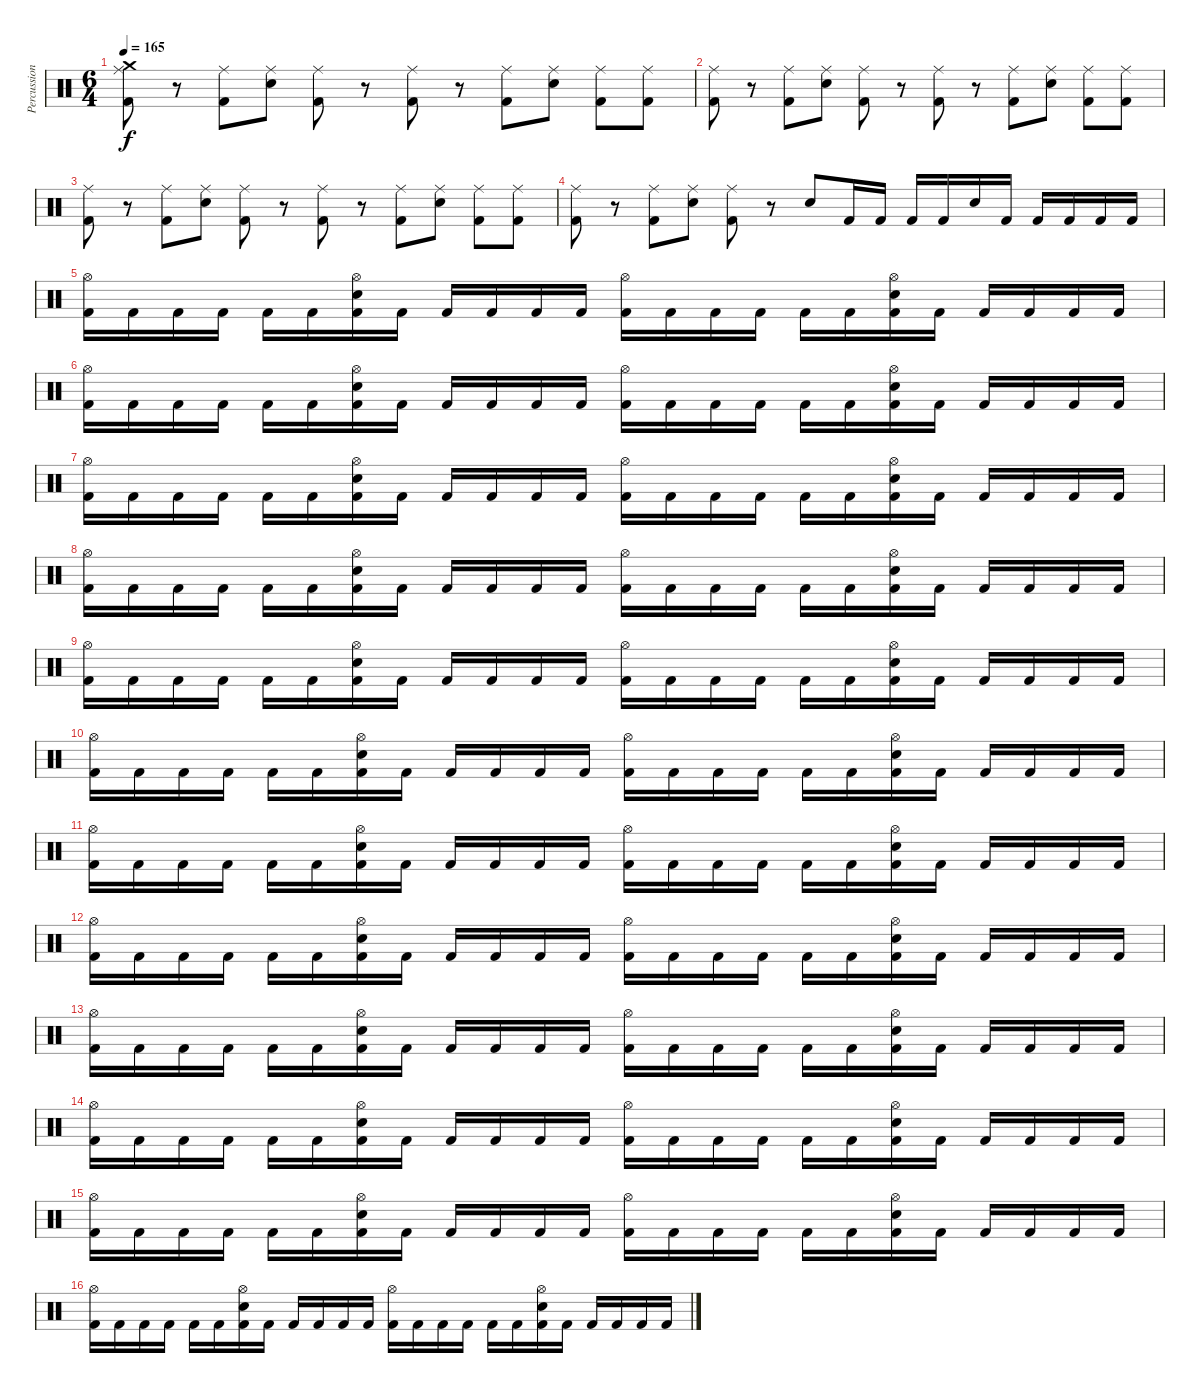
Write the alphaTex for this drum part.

\track ("Percussion" "Percussion") {instrument percussion}
\staff {score}
\articulation defaults
\ts (6 4)
\tempo 165
\clef neutral
\ks c
("Crash medium (hit)" "Ride (middle)" "Kick (hit) 2").8{dy f} r.8 ("Ride (middle)" "Kick (hit) 2").8 ("Ride (middle)" "Electric Snare (hit)").8 ("Ride (middle)" "Kick (hit) 2").8 r.8 ("Ride (middle)" "Kick (hit) 2").8 r.8 ("Ride (middle)" "Kick (hit) 2").8 ("Ride (middle)" "Electric Snare (hit)").8 ("Ride (middle)" "Kick (hit) 2").8 ("Ride (middle)" "Kick (hit) 2").8 |
("Ride (middle)" "Kick (hit) 2").8 r.8 ("Ride (middle)" "Kick (hit) 2").8 ("Ride (middle)" "Electric Snare (hit)").8 ("Ride (middle)" "Kick (hit) 2").8 r.8 ("Ride (middle)" "Kick (hit) 2").8 r.8 ("Ride (middle)" "Kick (hit) 2").8 ("Ride (middle)" "Electric Snare (hit)").8 ("Ride (middle)" "Kick (hit) 2").8 ("Ride (middle)" "Kick (hit) 2").8 |
("Ride (middle)" "Kick (hit) 2").8 r.8 ("Ride (middle)" "Kick (hit) 2").8 ("Ride (middle)" "Electric Snare (hit)").8 ("Ride (middle)" "Kick (hit) 2").8 r.8 ("Ride (middle)" "Kick (hit) 2").8 r.8 ("Ride (middle)" "Kick (hit) 2").8 ("Ride (middle)" "Electric Snare (hit)").8 ("Ride (middle)" "Kick (hit) 2").8 ("Ride (middle)" "Kick (hit) 2").8 |
("Ride (middle)" "Kick (hit) 2").8 r.8 ("Ride (middle)" "Kick (hit) 2").8 ("Ride (middle)" "Electric Snare (hit)").8 ("Ride (middle)" "Kick (hit) 2").8 r.8 "Electric Snare (hit)".8 "Kick (hit) 2".16 "Kick (hit) 2".16 "Kick (hit) 2".16 "Kick (hit) 2".16 "Electric Snare (hit)".16 "Kick (hit) 2".16 "Kick (hit) 2".16 "Kick (hit) 2".16 "Kick (hit) 2".16 "Kick (hit) 2".16 |
("Hi-Hat (open)" "Kick (hit) 2").16 "Kick (hit) 2".16 "Kick (hit) 2".16 "Kick (hit) 2".16 "Kick (hit) 2".16 "Kick (hit) 2".16 ("Hi-Hat (open)" "Electric Snare (hit)" "Kick (hit) 2").16 "Kick (hit) 2".16 "Kick (hit) 2".16 "Kick (hit) 2".16 "Kick (hit) 2".16 "Kick (hit) 2".16 ("Hi-Hat (open)" "Kick (hit) 2").16 "Kick (hit) 2".16 "Kick (hit) 2".16 "Kick (hit) 2".16 "Kick (hit) 2".16 "Kick (hit) 2".16 ("Hi-Hat (open)" "Electric Snare (hit)" "Kick (hit) 2").16 "Kick (hit) 2".16 "Kick (hit) 2".16 "Kick (hit) 2".16 "Kick (hit) 2".16 "Kick (hit) 2".16 |
("Hi-Hat (open)" "Kick (hit) 2").16 "Kick (hit) 2".16 "Kick (hit) 2".16 "Kick (hit) 2".16 "Kick (hit) 2".16 "Kick (hit) 2".16 ("Hi-Hat (open)" "Electric Snare (hit)" "Kick (hit) 2").16 "Kick (hit) 2".16 "Kick (hit) 2".16 "Kick (hit) 2".16 "Kick (hit) 2".16 "Kick (hit) 2".16 ("Hi-Hat (open)" "Kick (hit) 2").16 "Kick (hit) 2".16 "Kick (hit) 2".16 "Kick (hit) 2".16 "Kick (hit) 2".16 "Kick (hit) 2".16 ("Hi-Hat (open)" "Electric Snare (hit)" "Kick (hit) 2").16 "Kick (hit) 2".16 "Kick (hit) 2".16 "Kick (hit) 2".16 "Kick (hit) 2".16 "Kick (hit) 2".16 |
("Hi-Hat (open)" "Kick (hit) 2").16 "Kick (hit) 2".16 "Kick (hit) 2".16 "Kick (hit) 2".16 "Kick (hit) 2".16 "Kick (hit) 2".16 ("Hi-Hat (open)" "Electric Snare (hit)" "Kick (hit) 2").16 "Kick (hit) 2".16 "Kick (hit) 2".16 "Kick (hit) 2".16 "Kick (hit) 2".16 "Kick (hit) 2".16 ("Hi-Hat (open)" "Kick (hit) 2").16 "Kick (hit) 2".16 "Kick (hit) 2".16 "Kick (hit) 2".16 "Kick (hit) 2".16 "Kick (hit) 2".16 ("Hi-Hat (open)" "Electric Snare (hit)" "Kick (hit) 2").16 "Kick (hit) 2".16 "Kick (hit) 2".16 "Kick (hit) 2".16 "Kick (hit) 2".16 "Kick (hit) 2".16 |
("Hi-Hat (open)" "Kick (hit) 2").16 "Kick (hit) 2".16 "Kick (hit) 2".16 "Kick (hit) 2".16 "Kick (hit) 2".16 "Kick (hit) 2".16 ("Hi-Hat (open)" "Electric Snare (hit)" "Kick (hit) 2").16 "Kick (hit) 2".16 "Kick (hit) 2".16 "Kick (hit) 2".16 "Kick (hit) 2".16 "Kick (hit) 2".16 ("Hi-Hat (open)" "Kick (hit) 2").16 "Kick (hit) 2".16 "Kick (hit) 2".16 "Kick (hit) 2".16 "Kick (hit) 2".16 "Kick (hit) 2".16 ("Hi-Hat (open)" "Electric Snare (hit)" "Kick (hit) 2").16 "Kick (hit) 2".16 "Kick (hit) 2".16 "Kick (hit) 2".16 "Kick (hit) 2".16 "Kick (hit) 2".16 |
("Hi-Hat (open)" "Kick (hit) 2").16 "Kick (hit) 2".16 "Kick (hit) 2".16 "Kick (hit) 2".16 "Kick (hit) 2".16 "Kick (hit) 2".16 ("Hi-Hat (open)" "Electric Snare (hit)" "Kick (hit) 2").16 "Kick (hit) 2".16 "Kick (hit) 2".16 "Kick (hit) 2".16 "Kick (hit) 2".16 "Kick (hit) 2".16 ("Hi-Hat (open)" "Kick (hit) 2").16 "Kick (hit) 2".16 "Kick (hit) 2".16 "Kick (hit) 2".16 "Kick (hit) 2".16 "Kick (hit) 2".16 ("Hi-Hat (open)" "Electric Snare (hit)" "Kick (hit) 2").16 "Kick (hit) 2".16 "Kick (hit) 2".16 "Kick (hit) 2".16 "Kick (hit) 2".16 "Kick (hit) 2".16 |
("Hi-Hat (open)" "Kick (hit) 2").16 "Kick (hit) 2".16 "Kick (hit) 2".16 "Kick (hit) 2".16 "Kick (hit) 2".16 "Kick (hit) 2".16 ("Hi-Hat (open)" "Electric Snare (hit)" "Kick (hit) 2").16 "Kick (hit) 2".16 "Kick (hit) 2".16 "Kick (hit) 2".16 "Kick (hit) 2".16 "Kick (hit) 2".16 ("Hi-Hat (open)" "Kick (hit) 2").16 "Kick (hit) 2".16 "Kick (hit) 2".16 "Kick (hit) 2".16 "Kick (hit) 2".16 "Kick (hit) 2".16 ("Hi-Hat (open)" "Electric Snare (hit)" "Kick (hit) 2").16 "Kick (hit) 2".16 "Kick (hit) 2".16 "Kick (hit) 2".16 "Kick (hit) 2".16 "Kick (hit) 2".16 |
("Hi-Hat (open)" "Kick (hit) 2").16 "Kick (hit) 2".16 "Kick (hit) 2".16 "Kick (hit) 2".16 "Kick (hit) 2".16 "Kick (hit) 2".16 ("Hi-Hat (open)" "Electric Snare (hit)" "Kick (hit) 2").16 "Kick (hit) 2".16 "Kick (hit) 2".16 "Kick (hit) 2".16 "Kick (hit) 2".16 "Kick (hit) 2".16 ("Hi-Hat (open)" "Kick (hit) 2").16 "Kick (hit) 2".16 "Kick (hit) 2".16 "Kick (hit) 2".16 "Kick (hit) 2".16 "Kick (hit) 2".16 ("Hi-Hat (open)" "Electric Snare (hit)" "Kick (hit) 2").16 "Kick (hit) 2".16 "Kick (hit) 2".16 "Kick (hit) 2".16 "Kick (hit) 2".16 "Kick (hit) 2".16 |
("Hi-Hat (open)" "Kick (hit) 2").16 "Kick (hit) 2".16 "Kick (hit) 2".16 "Kick (hit) 2".16 "Kick (hit) 2".16 "Kick (hit) 2".16 ("Hi-Hat (open)" "Electric Snare (hit)" "Kick (hit) 2").16 "Kick (hit) 2".16 "Kick (hit) 2".16 "Kick (hit) 2".16 "Kick (hit) 2".16 "Kick (hit) 2".16 ("Hi-Hat (open)" "Kick (hit) 2").16 "Kick (hit) 2".16 "Kick (hit) 2".16 "Kick (hit) 2".16 "Kick (hit) 2".16 "Kick (hit) 2".16 ("Hi-Hat (open)" "Electric Snare (hit)" "Kick (hit) 2").16 "Kick (hit) 2".16 "Kick (hit) 2".16 "Kick (hit) 2".16 "Kick (hit) 2".16 "Kick (hit) 2".16 |
("Hi-Hat (open)" "Kick (hit) 2").16 "Kick (hit) 2".16 "Kick (hit) 2".16 "Kick (hit) 2".16 "Kick (hit) 2".16 "Kick (hit) 2".16 ("Hi-Hat (open)" "Electric Snare (hit)" "Kick (hit) 2").16 "Kick (hit) 2".16 "Kick (hit) 2".16 "Kick (hit) 2".16 "Kick (hit) 2".16 "Kick (hit) 2".16 ("Hi-Hat (open)" "Kick (hit) 2").16 "Kick (hit) 2".16 "Kick (hit) 2".16 "Kick (hit) 2".16 "Kick (hit) 2".16 "Kick (hit) 2".16 ("Hi-Hat (open)" "Electric Snare (hit)" "Kick (hit) 2").16 "Kick (hit) 2".16 "Kick (hit) 2".16 "Kick (hit) 2".16 "Kick (hit) 2".16 "Kick (hit) 2".16 |
("Hi-Hat (open)" "Kick (hit) 2").16 "Kick (hit) 2".16 "Kick (hit) 2".16 "Kick (hit) 2".16 "Kick (hit) 2".16 "Kick (hit) 2".16 ("Hi-Hat (open)" "Electric Snare (hit)" "Kick (hit) 2").16 "Kick (hit) 2".16 "Kick (hit) 2".16 "Kick (hit) 2".16 "Kick (hit) 2".16 "Kick (hit) 2".16 ("Hi-Hat (open)" "Kick (hit) 2").16 "Kick (hit) 2".16 "Kick (hit) 2".16 "Kick (hit) 2".16 "Kick (hit) 2".16 "Kick (hit) 2".16 ("Hi-Hat (open)" "Electric Snare (hit)" "Kick (hit) 2").16 "Kick (hit) 2".16 "Kick (hit) 2".16 "Kick (hit) 2".16 "Kick (hit) 2".16 "Kick (hit) 2".16 |
("Hi-Hat (open)" "Kick (hit) 2").16 "Kick (hit) 2".16 "Kick (hit) 2".16 "Kick (hit) 2".16 "Kick (hit) 2".16 "Kick (hit) 2".16 ("Hi-Hat (open)" "Electric Snare (hit)" "Kick (hit) 2").16 "Kick (hit) 2".16 "Kick (hit) 2".16 "Kick (hit) 2".16 "Kick (hit) 2".16 "Kick (hit) 2".16 ("Hi-Hat (open)" "Kick (hit) 2").16 "Kick (hit) 2".16 "Kick (hit) 2".16 "Kick (hit) 2".16 "Kick (hit) 2".16 "Kick (hit) 2".16 ("Hi-Hat (open)" "Electric Snare (hit)" "Kick (hit) 2").16 "Kick (hit) 2".16 "Kick (hit) 2".16 "Kick (hit) 2".16 "Kick (hit) 2".16 "Kick (hit) 2".16 |
("Hi-Hat (open)" "Kick (hit) 2").16 "Kick (hit) 2".16 "Kick (hit) 2".16 "Kick (hit) 2".16 "Kick (hit) 2".16 "Kick (hit) 2".16 ("Hi-Hat (open)" "Electric Snare (hit)" "Kick (hit) 2").16 "Kick (hit) 2".16 "Kick (hit) 2".16 "Kick (hit) 2".16 "Kick (hit) 2".16 "Kick (hit) 2".16 ("Hi-Hat (open)" "Kick (hit) 2").16 "Kick (hit) 2".16 "Kick (hit) 2".16 "Kick (hit) 2".16 "Kick (hit) 2".16 "Kick (hit) 2".16 ("Hi-Hat (open)" "Electric Snare (hit)" "Kick (hit) 2").16 "Kick (hit) 2".16 "Kick (hit) 2".16 "Kick (hit) 2".16 "Kick (hit) 2".16 "Kick (hit) 2".16
